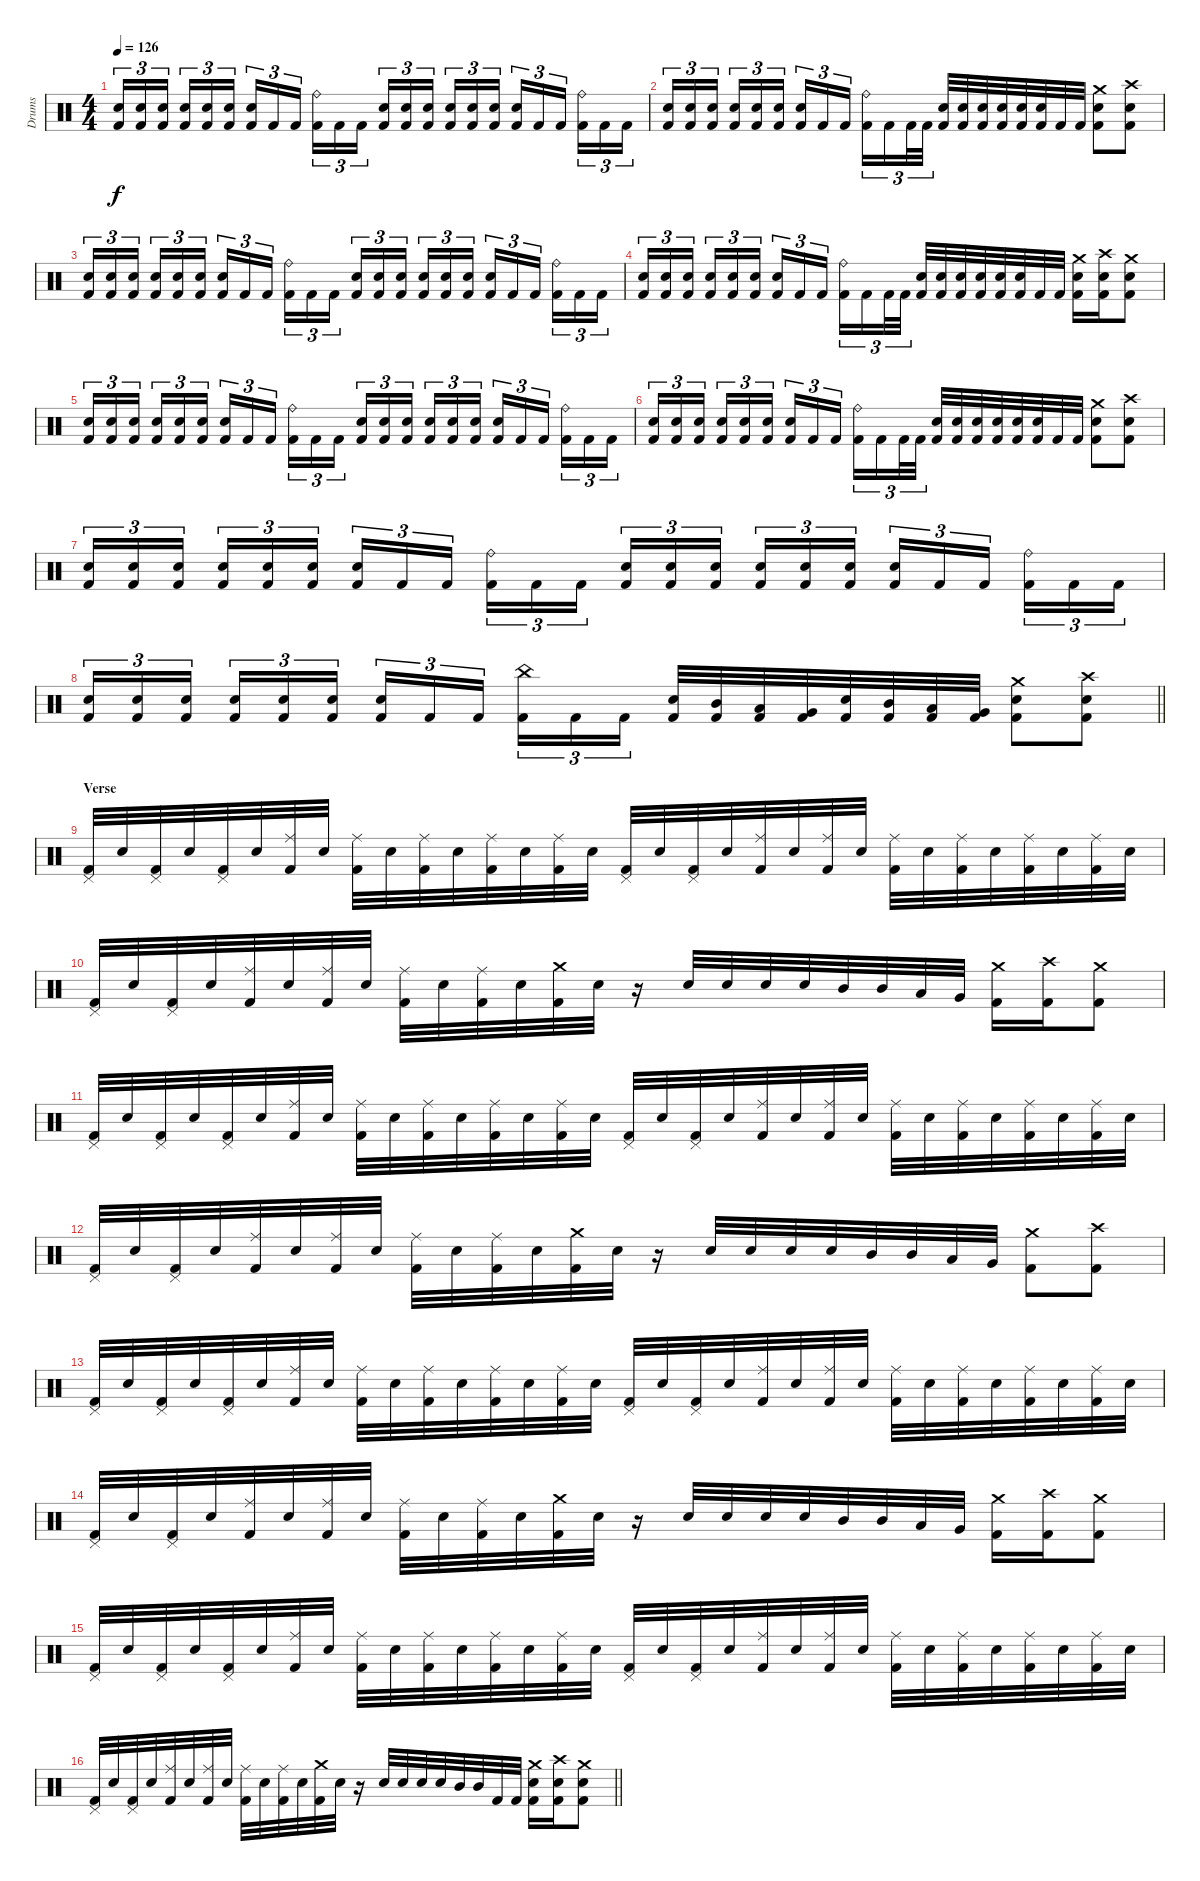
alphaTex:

\track ("Drums" "Drums") {instrument percussion}
\staff {score}
\articulation defaults
\ts (4 4)
\section ("" "")
\tempo 126
\clef neutral
\ks c
("Electric Snare (hit)" "Kick (hit) 2").16{tu (3 2) dy f} ("Electric Snare (hit)" "Kick (hit) 2").16{tu (3 2)} ("Electric Snare (hit)" "Kick (hit) 2").16{tu (3 2) beam splitsecondary} ("Electric Snare (hit)" "Kick (hit) 2").16{tu (3 2)} ("Electric Snare (hit)" "Kick (hit) 2").16{tu (3 2)} ("Electric Snare (hit)" "Kick (hit) 2").16{tu (3 2)} ("Electric Snare (hit)" "Kick (hit) 2").16{tu (3 2)} "Kick (hit) 2".16{tu (3 2)} "Kick (hit) 2".16{tu (3 2) beam splitsecondary} ("Ride (bell)" "Kick (hit) 2").16{tu (3 2)} "Kick (hit) 2".16{tu (3 2)} "Kick (hit) 2".16{tu (3 2)} ("Electric Snare (hit)" "Kick (hit) 2").16{tu (3 2)} ("Electric Snare (hit)" "Kick (hit) 2").16{tu (3 2)} ("Electric Snare (hit)" "Kick (hit) 2").16{tu (3 2) beam splitsecondary} ("Electric Snare (hit)" "Kick (hit) 2").16{tu (3 2)} ("Electric Snare (hit)" "Kick (hit) 2").16{tu (3 2)} ("Electric Snare (hit)" "Kick (hit) 2").16{tu (3 2)} ("Electric Snare (hit)" "Kick (hit) 2").16{tu (3 2)} "Kick (hit) 2".16{tu (3 2)} "Kick (hit) 2".16{tu (3 2) beam splitsecondary} ("Ride (bell)" "Kick (hit) 2").16{tu (3 2)} "Kick (hit) 2".16{tu (3 2)} "Kick (hit) 2".16{tu (3 2)} |
("Electric Snare (hit)" "Kick (hit) 2").16{tu (3 2)} ("Electric Snare (hit)" "Kick (hit) 2").16{tu (3 2)} ("Electric Snare (hit)" "Kick (hit) 2").16{tu (3 2) beam splitsecondary} ("Electric Snare (hit)" "Kick (hit) 2").16{tu (3 2)} ("Electric Snare (hit)" "Kick (hit) 2").16{tu (3 2)} ("Electric Snare (hit)" "Kick (hit) 2").16{tu (3 2)} ("Electric Snare (hit)" "Kick (hit) 2").16{tu (3 2)} "Kick (hit) 2".16{tu (3 2)} "Kick (hit) 2".16{tu (3 2) beam splitsecondary} ("Ride (bell)" "Kick (hit) 2").16{tu (3 2)} "Kick (hit) 2".16{tu (3 2)} "Kick (hit) 2".32{tu (3 2)} "Kick (hit) 2".32{tu (3 2)} ("Electric Snare (hit)" "Kick (hit) 2").32 ("Electric Snare (hit)" "Kick (hit) 2").32 ("Electric Snare (hit)" "Kick (hit) 2").32 ("Electric Snare (hit)" "Kick (hit) 2").32 ("Electric Snare (hit)" "Kick (hit) 2").32 ("Electric Snare (hit)" "Kick (hit) 2").32 "Kick (hit) 2".32 "Kick (hit) 2".32 ("Crash medium (hit)" "Electric Snare (hit)" "Kick (hit) 2").8 ("Crash high (hit)" "Electric Snare (hit)" "Kick (hit) 2").8 |
("Electric Snare (hit)" "Kick (hit) 2").16{tu (3 2)} ("Electric Snare (hit)" "Kick (hit) 2").16{tu (3 2)} ("Electric Snare (hit)" "Kick (hit) 2").16{tu (3 2) beam splitsecondary} ("Electric Snare (hit)" "Kick (hit) 2").16{tu (3 2)} ("Electric Snare (hit)" "Kick (hit) 2").16{tu (3 2)} ("Electric Snare (hit)" "Kick (hit) 2").16{tu (3 2)} ("Electric Snare (hit)" "Kick (hit) 2").16{tu (3 2)} "Kick (hit) 2".16{tu (3 2)} "Kick (hit) 2".16{tu (3 2) beam splitsecondary} ("Ride (bell)" "Kick (hit) 2").16{tu (3 2)} "Kick (hit) 2".16{tu (3 2)} "Kick (hit) 2".16{tu (3 2)} ("Electric Snare (hit)" "Kick (hit) 2").16{tu (3 2)} ("Electric Snare (hit)" "Kick (hit) 2").16{tu (3 2)} ("Electric Snare (hit)" "Kick (hit) 2").16{tu (3 2) beam splitsecondary} ("Electric Snare (hit)" "Kick (hit) 2").16{tu (3 2)} ("Electric Snare (hit)" "Kick (hit) 2").16{tu (3 2)} ("Electric Snare (hit)" "Kick (hit) 2").16{tu (3 2)} ("Electric Snare (hit)" "Kick (hit) 2").16{tu (3 2)} "Kick (hit) 2".16{tu (3 2)} "Kick (hit) 2".16{tu (3 2) beam splitsecondary} ("Ride (bell)" "Kick (hit) 2").16{tu (3 2)} "Kick (hit) 2".16{tu (3 2)} "Kick (hit) 2".16{tu (3 2)} |
("Electric Snare (hit)" "Kick (hit) 2").16{tu (3 2)} ("Electric Snare (hit)" "Kick (hit) 2").16{tu (3 2)} ("Electric Snare (hit)" "Kick (hit) 2").16{tu (3 2) beam splitsecondary} ("Electric Snare (hit)" "Kick (hit) 2").16{tu (3 2)} ("Electric Snare (hit)" "Kick (hit) 2").16{tu (3 2)} ("Electric Snare (hit)" "Kick (hit) 2").16{tu (3 2)} ("Electric Snare (hit)" "Kick (hit) 2").16{tu (3 2)} "Kick (hit) 2".16{tu (3 2)} "Kick (hit) 2".16{tu (3 2) beam splitsecondary} ("Ride (bell)" "Kick (hit) 2").16{tu (3 2)} "Kick (hit) 2".16{tu (3 2)} "Kick (hit) 2".32{tu (3 2)} "Kick (hit) 2".32{tu (3 2)} ("Electric Snare (hit)" "Kick (hit) 2").32 ("Electric Snare (hit)" "Kick (hit) 2").32 ("Electric Snare (hit)" "Kick (hit) 2").32 ("Electric Snare (hit)" "Kick (hit) 2").32 ("Electric Snare (hit)" "Kick (hit) 2").32 ("Electric Snare (hit)" "Kick (hit) 2").32 "Kick (hit) 2".32 "Kick (hit) 2".32 ("Crash medium (hit)" "Electric Snare (hit)" "Kick (hit) 2").16 ("Crash high (hit)" "Electric Snare (hit)" "Kick (hit) 2").16 ("Crash medium (hit)" "Electric Snare (hit)" "Kick (hit) 2").8 |
("Electric Snare (hit)" "Kick (hit) 2").16{tu (3 2)} ("Electric Snare (hit)" "Kick (hit) 2").16{tu (3 2)} ("Electric Snare (hit)" "Kick (hit) 2").16{tu (3 2) beam splitsecondary} ("Electric Snare (hit)" "Kick (hit) 2").16{tu (3 2)} ("Electric Snare (hit)" "Kick (hit) 2").16{tu (3 2)} ("Electric Snare (hit)" "Kick (hit) 2").16{tu (3 2)} ("Electric Snare (hit)" "Kick (hit) 2").16{tu (3 2)} "Kick (hit) 2".16{tu (3 2)} "Kick (hit) 2".16{tu (3 2) beam splitsecondary} ("Ride (bell)" "Kick (hit) 2").16{tu (3 2)} "Kick (hit) 2".16{tu (3 2)} "Kick (hit) 2".16{tu (3 2)} ("Electric Snare (hit)" "Kick (hit) 2").16{tu (3 2)} ("Electric Snare (hit)" "Kick (hit) 2").16{tu (3 2)} ("Electric Snare (hit)" "Kick (hit) 2").16{tu (3 2) beam splitsecondary} ("Electric Snare (hit)" "Kick (hit) 2").16{tu (3 2)} ("Electric Snare (hit)" "Kick (hit) 2").16{tu (3 2)} ("Electric Snare (hit)" "Kick (hit) 2").16{tu (3 2)} ("Electric Snare (hit)" "Kick (hit) 2").16{tu (3 2)} "Kick (hit) 2".16{tu (3 2)} "Kick (hit) 2".16{tu (3 2) beam splitsecondary} ("Ride (bell)" "Kick (hit) 2").16{tu (3 2)} "Kick (hit) 2".16{tu (3 2)} "Kick (hit) 2".16{tu (3 2)} |
("Electric Snare (hit)" "Kick (hit) 2").16{tu (3 2)} ("Electric Snare (hit)" "Kick (hit) 2").16{tu (3 2)} ("Electric Snare (hit)" "Kick (hit) 2").16{tu (3 2) beam splitsecondary} ("Electric Snare (hit)" "Kick (hit) 2").16{tu (3 2)} ("Electric Snare (hit)" "Kick (hit) 2").16{tu (3 2)} ("Electric Snare (hit)" "Kick (hit) 2").16{tu (3 2)} ("Electric Snare (hit)" "Kick (hit) 2").16{tu (3 2)} "Kick (hit) 2".16{tu (3 2)} "Kick (hit) 2".16{tu (3 2) beam splitsecondary} ("Ride (bell)" "Kick (hit) 2").16{tu (3 2)} "Kick (hit) 2".16{tu (3 2)} "Kick (hit) 2".32{tu (3 2)} "Kick (hit) 2".32{tu (3 2)} ("Electric Snare (hit)" "Kick (hit) 2").32 ("Electric Snare (hit)" "Kick (hit) 2").32 ("Electric Snare (hit)" "Kick (hit) 2").32 ("Electric Snare (hit)" "Kick (hit) 2").32 ("Electric Snare (hit)" "Kick (hit) 2").32 ("Electric Snare (hit)" "Kick (hit) 2").32 "Kick (hit) 2".32 "Kick (hit) 2".32 ("Crash medium (hit)" "Electric Snare (hit)" "Kick (hit) 2").8 ("Crash high (hit)" "Electric Snare (hit)" "Kick (hit) 2").8 |
("Electric Snare (hit)" "Kick (hit) 2").16{tu (3 2)} ("Electric Snare (hit)" "Kick (hit) 2").16{tu (3 2)} ("Electric Snare (hit)" "Kick (hit) 2").16{tu (3 2) beam splitsecondary} ("Electric Snare (hit)" "Kick (hit) 2").16{tu (3 2)} ("Electric Snare (hit)" "Kick (hit) 2").16{tu (3 2)} ("Electric Snare (hit)" "Kick (hit) 2").16{tu (3 2)} ("Electric Snare (hit)" "Kick (hit) 2").16{tu (3 2)} "Kick (hit) 2".16{tu (3 2)} "Kick (hit) 2".16{tu (3 2) beam splitsecondary} ("Ride (bell)" "Kick (hit) 2").16{tu (3 2)} "Kick (hit) 2".16{tu (3 2)} "Kick (hit) 2".16{tu (3 2)} ("Electric Snare (hit)" "Kick (hit) 2").16{tu (3 2)} ("Electric Snare (hit)" "Kick (hit) 2").16{tu (3 2)} ("Electric Snare (hit)" "Kick (hit) 2").16{tu (3 2) beam splitsecondary} ("Electric Snare (hit)" "Kick (hit) 2").16{tu (3 2)} ("Electric Snare (hit)" "Kick (hit) 2").16{tu (3 2)} ("Electric Snare (hit)" "Kick (hit) 2").16{tu (3 2)} ("Electric Snare (hit)" "Kick (hit) 2").16{tu (3 2)} "Kick (hit) 2".16{tu (3 2)} "Kick (hit) 2".16{tu (3 2) beam splitsecondary} ("Ride (bell)" "Kick (hit) 2").16{tu (3 2)} "Kick (hit) 2".16{tu (3 2)} "Kick (hit) 2".16{tu (3 2)} |
\barLineRight lightlight
("Electric Snare (hit)" "Kick (hit) 2").16{tu (3 2)} ("Electric Snare (hit)" "Kick (hit) 2").16{tu (3 2)} ("Electric Snare (hit)" "Kick (hit) 2").16{tu (3 2) beam splitsecondary} ("Electric Snare (hit)" "Kick (hit) 2").16{tu (3 2)} ("Electric Snare (hit)" "Kick (hit) 2").16{tu (3 2)} ("Electric Snare (hit)" "Kick (hit) 2").16{tu (3 2)} ("Electric Snare (hit)" "Kick (hit) 2").16{tu (3 2)} "Kick (hit) 2".16{tu (3 2)} "Kick (hit) 2".16{tu (3 2) beam splitsecondary} ("China (hit)" "Kick (hit) 2").16{tu (3 2)} "Kick (hit) 2".16{tu (3 2)} "Kick (hit) 2".16{tu (3 2)} ("Electric Snare (hit)" "Kick (hit) 2").32 ("Mid Tom (hit)" "Kick (hit) 2").32 ("Low Tom (hit)" "Kick (hit) 2").32 ("Very Low Tom (hit)" "Kick (hit) 2").32 ("Electric Snare (hit)" "Kick (hit) 2").32 ("Mid Tom (hit)" "Kick (hit) 2").32 ("Low Tom (hit)" "Kick (hit) 2").32 ("Very Low Tom (hit)" "Kick (hit) 2").32 ("Crash medium (hit)" "Electric Snare (hit)" "Kick (hit) 2").8 ("Crash high (hit)" "Electric Snare (hit)" "Kick (hit) 2").8 |
\section ("" "Verse")
("Pedal Hi-Hat (hit)" "Kick (hit) 2").32 "Electric Snare (hit)".32 ("Pedal Hi-Hat (hit)" "Kick (hit) 2").32 "Electric Snare (hit)".32 ("Pedal Hi-Hat (hit)" "Kick (hit) 2").32 "Electric Snare (hit)".32 ("Ride (middle)" "Kick (hit) 2").32 "Electric Snare (hit)".32 ("Ride (middle)" "Kick (hit) 2").32 "Electric Snare (hit)".32 ("Ride (middle)" "Kick (hit) 2").32 "Electric Snare (hit)".32 ("Ride (middle)" "Kick (hit) 2").32 "Electric Snare (hit)".32 ("Ride (middle)" "Kick (hit) 2").32 "Electric Snare (hit)".32 ("Pedal Hi-Hat (hit)" "Kick (hit) 2").32 "Electric Snare (hit)".32 ("Pedal Hi-Hat (hit)" "Kick (hit) 2").32 "Electric Snare (hit)".32 ("Ride (middle)" "Kick (hit) 2").32 "Electric Snare (hit)".32 ("Ride (middle)" "Kick (hit) 2").32 "Electric Snare (hit)".32 ("Ride (middle)" "Kick (hit) 2").32 "Electric Snare (hit)".32 ("Ride (middle)" "Kick (hit) 2").32 "Electric Snare (hit)".32 ("Ride (middle)" "Kick (hit) 2").32 "Electric Snare (hit)".32 ("Ride (middle)" "Kick (hit) 2").32 "Electric Snare (hit)".32 |
("Pedal Hi-Hat (hit)" "Kick (hit) 2").32 "Electric Snare (hit)".32 ("Pedal Hi-Hat (hit)" "Kick (hit) 2").32 "Electric Snare (hit)".32 ("Ride (middle)" "Kick (hit) 2").32 "Electric Snare (hit)".32 ("Ride (middle)" "Kick (hit) 2").32 "Electric Snare (hit)".32 ("Ride (middle)" "Kick (hit) 2").32 "Electric Snare (hit)".32 ("Ride (middle)" "Kick (hit) 2").32 "Electric Snare (hit)".32 ("Crash medium (hit)" "Kick (hit) 2").32 "Electric Snare (hit)".32 r.16 "Electric Snare (hit)".32 "Electric Snare (hit)".32 "Electric Snare (hit)".32 "Electric Snare (hit)".32 "Mid Tom (hit)".32 "Mid Tom (hit)".32 "Low Tom (hit)".32 "Very Low Tom (hit)".32 ("Crash medium (hit)" "Kick (hit) 2").16 ("Crash high (hit)" "Kick (hit) 2").16 ("Crash medium (hit)" "Kick (hit) 2").8 |
("Pedal Hi-Hat (hit)" "Kick (hit) 2").32 "Electric Snare (hit)".32 ("Pedal Hi-Hat (hit)" "Kick (hit) 2").32 "Electric Snare (hit)".32 ("Pedal Hi-Hat (hit)" "Kick (hit) 2").32 "Electric Snare (hit)".32 ("Ride (middle)" "Kick (hit) 2").32 "Electric Snare (hit)".32 ("Ride (middle)" "Kick (hit) 2").32 "Electric Snare (hit)".32 ("Ride (middle)" "Kick (hit) 2").32 "Electric Snare (hit)".32 ("Ride (middle)" "Kick (hit) 2").32 "Electric Snare (hit)".32 ("Ride (middle)" "Kick (hit) 2").32 "Electric Snare (hit)".32 ("Pedal Hi-Hat (hit)" "Kick (hit) 2").32 "Electric Snare (hit)".32 ("Pedal Hi-Hat (hit)" "Kick (hit) 2").32 "Electric Snare (hit)".32 ("Ride (middle)" "Kick (hit) 2").32 "Electric Snare (hit)".32 ("Ride (middle)" "Kick (hit) 2").32 "Electric Snare (hit)".32 ("Ride (middle)" "Kick (hit) 2").32 "Electric Snare (hit)".32 ("Ride (middle)" "Kick (hit) 2").32 "Electric Snare (hit)".32 ("Ride (middle)" "Kick (hit) 2").32 "Electric Snare (hit)".32 ("Ride (middle)" "Kick (hit) 2").32 "Electric Snare (hit)".32 |
("Pedal Hi-Hat (hit)" "Kick (hit) 2").32 "Electric Snare (hit)".32 ("Pedal Hi-Hat (hit)" "Kick (hit) 2").32 "Electric Snare (hit)".32 ("Ride (middle)" "Kick (hit) 2").32 "Electric Snare (hit)".32 ("Ride (middle)" "Kick (hit) 2").32 "Electric Snare (hit)".32 ("Ride (middle)" "Kick (hit) 2").32 "Electric Snare (hit)".32 ("Ride (middle)" "Kick (hit) 2").32 "Electric Snare (hit)".32 ("Crash medium (hit)" "Kick (hit) 2").32 "Electric Snare (hit)".32 r.16 "Electric Snare (hit)".32 "Electric Snare (hit)".32 "Electric Snare (hit)".32 "Electric Snare (hit)".32 "Mid Tom (hit)".32 "Mid Tom (hit)".32 "Low Tom (hit)".32 "Very Low Tom (hit)".32 ("Crash medium (hit)" "Kick (hit) 2").8 ("Crash high (hit)" "Kick (hit) 2").8 |
("Pedal Hi-Hat (hit)" "Kick (hit) 2").32 "Electric Snare (hit)".32 ("Pedal Hi-Hat (hit)" "Kick (hit) 2").32 "Electric Snare (hit)".32 ("Pedal Hi-Hat (hit)" "Kick (hit) 2").32 "Electric Snare (hit)".32 ("Ride (middle)" "Kick (hit) 2").32 "Electric Snare (hit)".32 ("Ride (middle)" "Kick (hit) 2").32 "Electric Snare (hit)".32 ("Ride (middle)" "Kick (hit) 2").32 "Electric Snare (hit)".32 ("Ride (middle)" "Kick (hit) 2").32 "Electric Snare (hit)".32 ("Ride (middle)" "Kick (hit) 2").32 "Electric Snare (hit)".32 ("Pedal Hi-Hat (hit)" "Kick (hit) 2").32 "Electric Snare (hit)".32 ("Pedal Hi-Hat (hit)" "Kick (hit) 2").32 "Electric Snare (hit)".32 ("Ride (middle)" "Kick (hit) 2").32 "Electric Snare (hit)".32 ("Ride (middle)" "Kick (hit) 2").32 "Electric Snare (hit)".32 ("Ride (middle)" "Kick (hit) 2").32 "Electric Snare (hit)".32 ("Ride (middle)" "Kick (hit) 2").32 "Electric Snare (hit)".32 ("Ride (middle)" "Kick (hit) 2").32 "Electric Snare (hit)".32 ("Ride (middle)" "Kick (hit) 2").32 "Electric Snare (hit)".32 |
("Pedal Hi-Hat (hit)" "Kick (hit) 2").32 "Electric Snare (hit)".32 ("Pedal Hi-Hat (hit)" "Kick (hit) 2").32 "Electric Snare (hit)".32 ("Ride (middle)" "Kick (hit) 2").32 "Electric Snare (hit)".32 ("Ride (middle)" "Kick (hit) 2").32 "Electric Snare (hit)".32 ("Ride (middle)" "Kick (hit) 2").32 "Electric Snare (hit)".32 ("Ride (middle)" "Kick (hit) 2").32 "Electric Snare (hit)".32 ("Crash medium (hit)" "Kick (hit) 2").32 "Electric Snare (hit)".32 r.16 "Electric Snare (hit)".32 "Electric Snare (hit)".32 "Electric Snare (hit)".32 "Electric Snare (hit)".32 "Mid Tom (hit)".32 "Mid Tom (hit)".32 "Low Tom (hit)".32 "Very Low Tom (hit)".32 ("Crash medium (hit)" "Kick (hit) 2").16 ("Crash high (hit)" "Kick (hit) 2").16 ("Crash medium (hit)" "Kick (hit) 2").8 |
("Pedal Hi-Hat (hit)" "Kick (hit) 2").32 "Electric Snare (hit)".32 ("Pedal Hi-Hat (hit)" "Kick (hit) 2").32 "Electric Snare (hit)".32 ("Pedal Hi-Hat (hit)" "Kick (hit) 2").32 "Electric Snare (hit)".32 ("Ride (middle)" "Kick (hit) 2").32 "Electric Snare (hit)".32 ("Ride (middle)" "Kick (hit) 2").32 "Electric Snare (hit)".32 ("Ride (middle)" "Kick (hit) 2").32 "Electric Snare (hit)".32 ("Ride (middle)" "Kick (hit) 2").32 "Electric Snare (hit)".32 ("Ride (middle)" "Kick (hit) 2").32 "Electric Snare (hit)".32 ("Pedal Hi-Hat (hit)" "Kick (hit) 2").32 "Electric Snare (hit)".32 ("Pedal Hi-Hat (hit)" "Kick (hit) 2").32 "Electric Snare (hit)".32 ("Ride (middle)" "Kick (hit) 2").32 "Electric Snare (hit)".32 ("Ride (middle)" "Kick (hit) 2").32 "Electric Snare (hit)".32 ("Ride (middle)" "Kick (hit) 2").32 "Electric Snare (hit)".32 ("Ride (middle)" "Kick (hit) 2").32 "Electric Snare (hit)".32 ("Ride (middle)" "Kick (hit) 2").32 "Electric Snare (hit)".32 ("Ride (middle)" "Kick (hit) 2").32 "Electric Snare (hit)".32 |
\barLineRight lightlight
("Pedal Hi-Hat (hit)" "Kick (hit) 2").32 "Electric Snare (hit)".32 ("Pedal Hi-Hat (hit)" "Kick (hit) 2").32 "Electric Snare (hit)".32 ("Ride (middle)" "Kick (hit) 2").32 "Electric Snare (hit)".32 ("Ride (middle)" "Kick (hit) 2").32 "Electric Snare (hit)".32 ("Ride (middle)" "Kick (hit) 2").32 "Electric Snare (hit)".32 ("Ride (middle)" "Kick (hit) 2").32 "Electric Snare (hit)".32 ("Crash medium (hit)" "Kick (hit) 2").32 "Electric Snare (hit)".32 r.16 "Electric Snare (hit)".32 "Electric Snare (hit)".32 "Electric Snare (hit)".32 "Electric Snare (hit)".32 "Mid Tom (hit)".32 "Mid Tom (hit)".32 "Kick (hit) 2".32 "Kick (hit) 2".32 ("Crash medium (hit)" "Electric Snare (hit)" "Kick (hit) 2").16 ("Crash high (hit)" "Electric Snare (hit)" "Kick (hit) 2").16 ("Crash medium (hit)" "Electric Snare (hit)" "Kick (hit) 2").8
